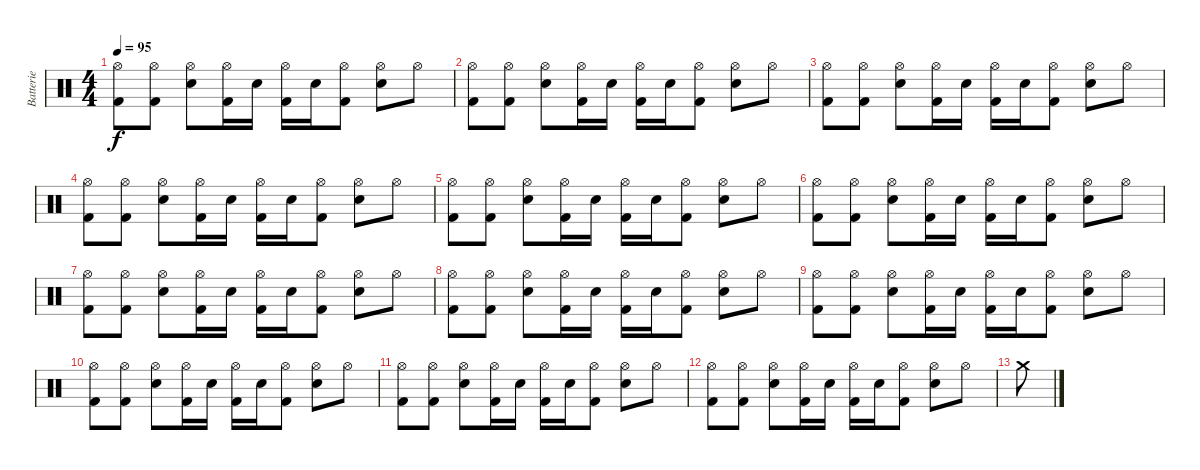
\track ("Batterie" "Batterie") {instrument percussion}
\staff {score}
\articulation defaults
\ts (4 4)
\tempo 95
\clef neutral
\ks c
("Kick (hit) 2" "Hi-Hat (open)").8{dy f} ("Kick (hit) 2" "Hi-Hat (open)").8 ("Electric Snare (hit)" "Hi-Hat (open)").8 ("Kick (hit) 2" "Hi-Hat (open)").16 "Electric Snare (hit)".16 ("Kick (hit) 2" "Hi-Hat (open)").16 "Electric Snare (hit)".16 ("Kick (hit) 2" "Hi-Hat (open)").8 ("Electric Snare (hit)" "Hi-Hat (open)").8 "Hi-Hat (open)".8 |
("Kick (hit) 2" "Hi-Hat (open)").8 ("Kick (hit) 2" "Hi-Hat (open)").8 ("Electric Snare (hit)" "Hi-Hat (open)").8 ("Kick (hit) 2" "Hi-Hat (open)").16 "Electric Snare (hit)".16 ("Kick (hit) 2" "Hi-Hat (open)").16 "Electric Snare (hit)".16 ("Kick (hit) 2" "Hi-Hat (open)").8 ("Electric Snare (hit)" "Hi-Hat (open)").8 "Hi-Hat (open)".8 |
("Kick (hit) 2" "Hi-Hat (open)").8 ("Kick (hit) 2" "Hi-Hat (open)").8 ("Electric Snare (hit)" "Hi-Hat (open)").8 ("Kick (hit) 2" "Hi-Hat (open)").16 "Electric Snare (hit)".16 ("Kick (hit) 2" "Hi-Hat (open)").16 "Electric Snare (hit)".16 ("Kick (hit) 2" "Hi-Hat (open)").8 ("Electric Snare (hit)" "Hi-Hat (open)").8 "Hi-Hat (open)".8 |
("Kick (hit) 2" "Hi-Hat (open)").8 ("Kick (hit) 2" "Hi-Hat (open)").8 ("Electric Snare (hit)" "Hi-Hat (open)").8 ("Kick (hit) 2" "Hi-Hat (open)").16 "Electric Snare (hit)".16 ("Kick (hit) 2" "Hi-Hat (open)").16 "Electric Snare (hit)".16 ("Kick (hit) 2" "Hi-Hat (open)").8 ("Electric Snare (hit)" "Hi-Hat (open)").8 "Hi-Hat (open)".8 |
("Kick (hit) 2" "Hi-Hat (open)").8 ("Kick (hit) 2" "Hi-Hat (open)").8 ("Electric Snare (hit)" "Hi-Hat (open)").8 ("Kick (hit) 2" "Hi-Hat (open)").16 "Electric Snare (hit)".16 ("Kick (hit) 2" "Hi-Hat (open)").16 "Electric Snare (hit)".16 ("Kick (hit) 2" "Hi-Hat (open)").8 ("Electric Snare (hit)" "Hi-Hat (open)").8 "Hi-Hat (open)".8 |
("Kick (hit) 2" "Hi-Hat (open)").8 ("Kick (hit) 2" "Hi-Hat (open)").8 ("Electric Snare (hit)" "Hi-Hat (open)").8 ("Kick (hit) 2" "Hi-Hat (open)").16 "Electric Snare (hit)".16 ("Kick (hit) 2" "Hi-Hat (open)").16 "Electric Snare (hit)".16 ("Kick (hit) 2" "Hi-Hat (open)").8 ("Electric Snare (hit)" "Hi-Hat (open)").8 "Hi-Hat (open)".8 |
("Kick (hit) 2" "Hi-Hat (open)").8 ("Kick (hit) 2" "Hi-Hat (open)").8 ("Electric Snare (hit)" "Hi-Hat (open)").8 ("Kick (hit) 2" "Hi-Hat (open)").16 "Electric Snare (hit)".16 ("Kick (hit) 2" "Hi-Hat (open)").16 "Electric Snare (hit)".16 ("Kick (hit) 2" "Hi-Hat (open)").8 ("Electric Snare (hit)" "Hi-Hat (open)").8 "Hi-Hat (open)".8 |
("Kick (hit) 2" "Hi-Hat (open)").8 ("Kick (hit) 2" "Hi-Hat (open)").8 ("Electric Snare (hit)" "Hi-Hat (open)").8 ("Kick (hit) 2" "Hi-Hat (open)").16 "Electric Snare (hit)".16 ("Kick (hit) 2" "Hi-Hat (open)").16 "Electric Snare (hit)".16 ("Kick (hit) 2" "Hi-Hat (open)").8 ("Electric Snare (hit)" "Hi-Hat (open)").8 "Hi-Hat (open)".8 |
("Kick (hit) 2" "Hi-Hat (open)").8 ("Kick (hit) 2" "Hi-Hat (open)").8 ("Electric Snare (hit)" "Hi-Hat (open)").8 ("Kick (hit) 2" "Hi-Hat (open)").16 "Electric Snare (hit)".16 ("Kick (hit) 2" "Hi-Hat (open)").16 "Electric Snare (hit)".16 ("Kick (hit) 2" "Hi-Hat (open)").8 ("Electric Snare (hit)" "Hi-Hat (open)").8 "Hi-Hat (open)".8 |
("Kick (hit) 2" "Hi-Hat (open)").8 ("Kick (hit) 2" "Hi-Hat (open)").8 ("Electric Snare (hit)" "Hi-Hat (open)").8 ("Kick (hit) 2" "Hi-Hat (open)").16 "Electric Snare (hit)".16 ("Kick (hit) 2" "Hi-Hat (open)").16 "Electric Snare (hit)".16 ("Kick (hit) 2" "Hi-Hat (open)").8 ("Electric Snare (hit)" "Hi-Hat (open)").8 "Hi-Hat (open)".8 |
("Kick (hit) 2" "Hi-Hat (open)").8 ("Kick (hit) 2" "Hi-Hat (open)").8 ("Electric Snare (hit)" "Hi-Hat (open)").8 ("Kick (hit) 2" "Hi-Hat (open)").16 "Electric Snare (hit)".16 ("Kick (hit) 2" "Hi-Hat (open)").16 "Electric Snare (hit)".16 ("Kick (hit) 2" "Hi-Hat (open)").8 ("Electric Snare (hit)" "Hi-Hat (open)").8 "Hi-Hat (open)".8 |
("Kick (hit) 2" "Hi-Hat (open)").8 ("Kick (hit) 2" "Hi-Hat (open)").8 ("Electric Snare (hit)" "Hi-Hat (open)").8 ("Kick (hit) 2" "Hi-Hat (open)").16 "Electric Snare (hit)".16 ("Kick (hit) 2" "Hi-Hat (open)").16 "Electric Snare (hit)".16 ("Kick (hit) 2" "Hi-Hat (open)").8 ("Electric Snare (hit)" "Hi-Hat (open)").8 "Hi-Hat (open)".8 |
"Crash medium (hit)".8
